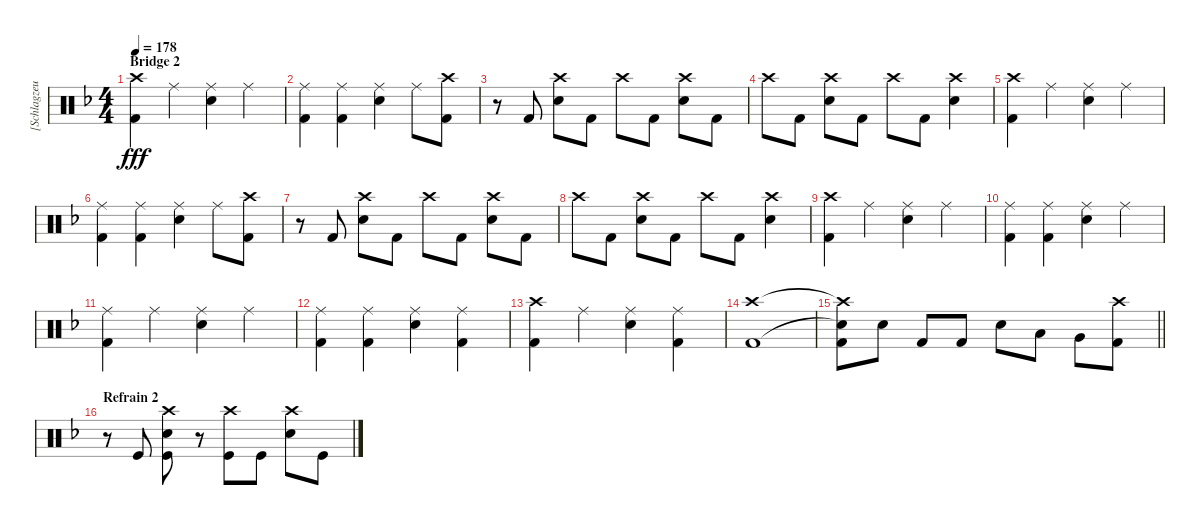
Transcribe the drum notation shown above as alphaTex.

\track ("[Schlagzeug]" "[Schlagzeu") {instrument percussion}
\staff {score}
\articulation defaults
\ts (4 4)
\section ("" "Bridge 2")
\tempo 178
\clef neutral
\ks dminor
("Crash high (hit)" "Kick (hit) 2").4{dy fff} "Ride (middle)".4 ("Ride (middle)" "Electric Snare (hit)").4 "Ride (middle)".4 |
("Ride (middle)" "Kick (hit) 2").4 ("Ride (middle)" "Kick (hit) 2").4 ("Ride (middle)" "Electric Snare (hit)").4 "Ride (middle)".8 ("Crash high (hit)" "Kick (hit) 2").8 |
r.8 "Kick (hit) 2".8 ("Crash high (hit)" "Electric Snare (hit)").8 "Kick (hit) 2".8 "Crash high (hit)".8 "Kick (hit) 2".8 ("Crash high (hit)" "Electric Snare (hit)").8 "Kick (hit) 2".8 |
"Crash high (hit)".8 "Kick (hit) 2".8 ("Crash high (hit)" "Electric Snare (hit)").8 "Kick (hit) 2".8 "Crash high (hit)".8 "Kick (hit) 2".8 ("Crash high (hit)" "Electric Snare (hit)").4 |
("Crash high (hit)" "Kick (hit) 2").4 "Ride (middle)".4 ("Ride (middle)" "Electric Snare (hit)").4 "Ride (middle)".4 |
("Ride (middle)" "Kick (hit) 2").4 ("Ride (middle)" "Kick (hit) 2").4 ("Ride (middle)" "Electric Snare (hit)").4 "Ride (middle)".8 ("Crash high (hit)" "Kick (hit) 2").8 |
r.8 "Kick (hit) 2".8 ("Crash high (hit)" "Electric Snare (hit)").8 "Kick (hit) 2".8 "Crash high (hit)".8 "Kick (hit) 2".8 ("Crash high (hit)" "Electric Snare (hit)").8 "Kick (hit) 2".8 |
"Crash high (hit)".8 "Kick (hit) 2".8 ("Crash high (hit)" "Electric Snare (hit)").8 "Kick (hit) 2".8 "Crash high (hit)".8 "Kick (hit) 2".8 ("Crash high (hit)" "Electric Snare (hit)").4 |
("Crash high (hit)" "Kick (hit) 2").4 "Ride (middle)".4 ("Ride (middle)" "Electric Snare (hit)").4 "Ride (middle)".4 |
("Ride (middle)" "Kick (hit) 2").4 ("Ride (middle)" "Kick (hit) 2").4 ("Ride (middle)" "Electric Snare (hit)").4 "Ride (middle)".4 |
("Ride (middle)" "Kick (hit) 2").4 "Ride (middle)".4 ("Ride (middle)" "Electric Snare (hit)").4 "Ride (middle)".4 |
("Ride (middle)" "Kick (hit) 2").4 ("Ride (middle)" "Kick (hit) 2").4 ("Ride (middle)" "Electric Snare (hit)").4 ("Ride (middle)" "Kick (hit) 2").4 |
("Crash high (hit)" "Kick (hit) 2").4 "Ride (middle)".4 ("Ride (middle)" "Electric Snare (hit)").4 ("Ride (middle)" "Kick (hit) 2").4 |
("Crash high (hit)" "Kick (hit) 2").1 |
\barLineRight lightlight
("Crash high (hit)"{t} "Snare (hit)"{t} "Kick (hit) 2").8 "Electric Snare (hit)".8 "Kick (hit) 2".8 "Kick (hit) 2".8 "Electric Snare (hit)".8 "Low Tom (hit)".8 "Very Low Tom (hit)".8 ("Crash high (hit)" "Kick (hit) 2").8 |
\section ("" "Refrain 2")
r.8 "Kick (hit)".8 ("Crash high (hit)" "Electric Snare (hit)" "Kick (hit)").8 r.8 ("Crash high (hit)" "Kick (hit)").8 "Kick (hit)".8 ("Crash high (hit)" "Electric Snare (hit)").8 "Kick (hit)".8
